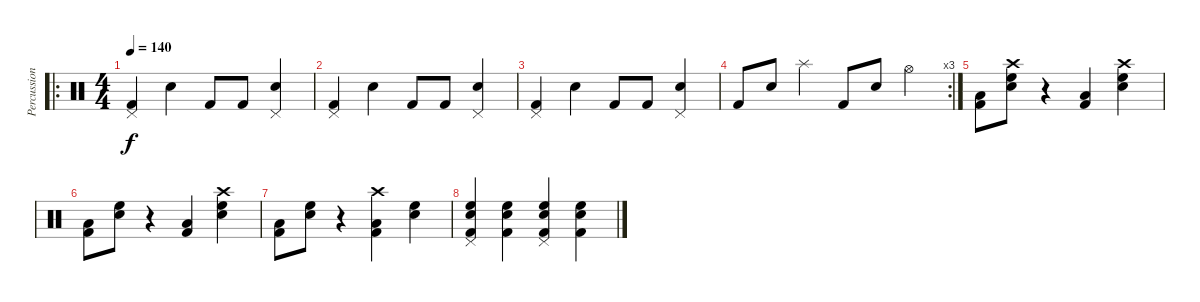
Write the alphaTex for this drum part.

\track ("Percussion" "Percussion") {instrument percussion}
\staff {score}
\articulation defaults
\ro
\ts (4 4)
\tempo 140
\clef neutral
\ks c
("Pedal Hi-Hat (hit)" "Kick (hit) 2").4{dy f} "Snare (hit) 2".4 "Kick (hit) 2".8 "Kick (hit) 2".8 ("Pedal Hi-Hat (hit)" "Snare (hit) 2").4 |
("Pedal Hi-Hat (hit)" "Kick (hit) 2").4 "Snare (hit) 2".4 "Kick (hit) 2".8 "Kick (hit) 2".8 ("Pedal Hi-Hat (hit)" "Snare (hit) 2").4 |
("Pedal Hi-Hat (hit)" "Kick (hit) 2").4 "Snare (hit) 2".4 "Kick (hit) 2".8 "Kick (hit) 2".8 ("Pedal Hi-Hat (hit)" "Snare (hit) 2").4 |
\rc 3 "Kick (hit) 2".8 "Snare (hit) 2".8 "Splash (hit)".4 "Kick (hit) 2".8 "Snare (hit) 2".8 "Hi-Hat (open)".4
|
("Low Tom (hit)" "Kick (hit) 2").8 ("Crash high (hit)" "High Floor Tom (hit)" "Snare (hit) 2").8 r.4 ("Low Tom (hit)" "Kick (hit) 2").4 ("Crash high (hit)" "High Floor Tom (hit)" "Snare (hit) 2").4 |
("Low Tom (hit)" "Kick (hit) 2").8 ("High Floor Tom (hit)" "Snare (hit) 2").8 r.4 ("Low Tom (hit)" "Kick (hit) 2").4 ("Crash high (hit)" "High Floor Tom (hit)" "Snare (hit) 2").4 |
("Low Tom (hit)" "Kick (hit) 2").8 ("High Floor Tom (hit)" "Snare (hit) 2").8 r.4 ("Crash high (hit)" "Low Tom (hit)" "Kick (hit) 2").4 ("High Floor Tom (hit)" "Snare (hit) 2").4 |
("Pedal Hi-Hat (hit)" "High Floor Tom (hit)" "Snare (hit) 2" "Kick (hit) 2").4 ("High Floor Tom (hit)" "Snare (hit) 2" "Kick (hit) 2").4 ("Pedal Hi-Hat (hit)" "High Floor Tom (hit)" "Snare (hit) 2" "Kick (hit) 2").4 ("High Floor Tom (hit)" "Snare (hit) 2" "Kick (hit) 2").4
